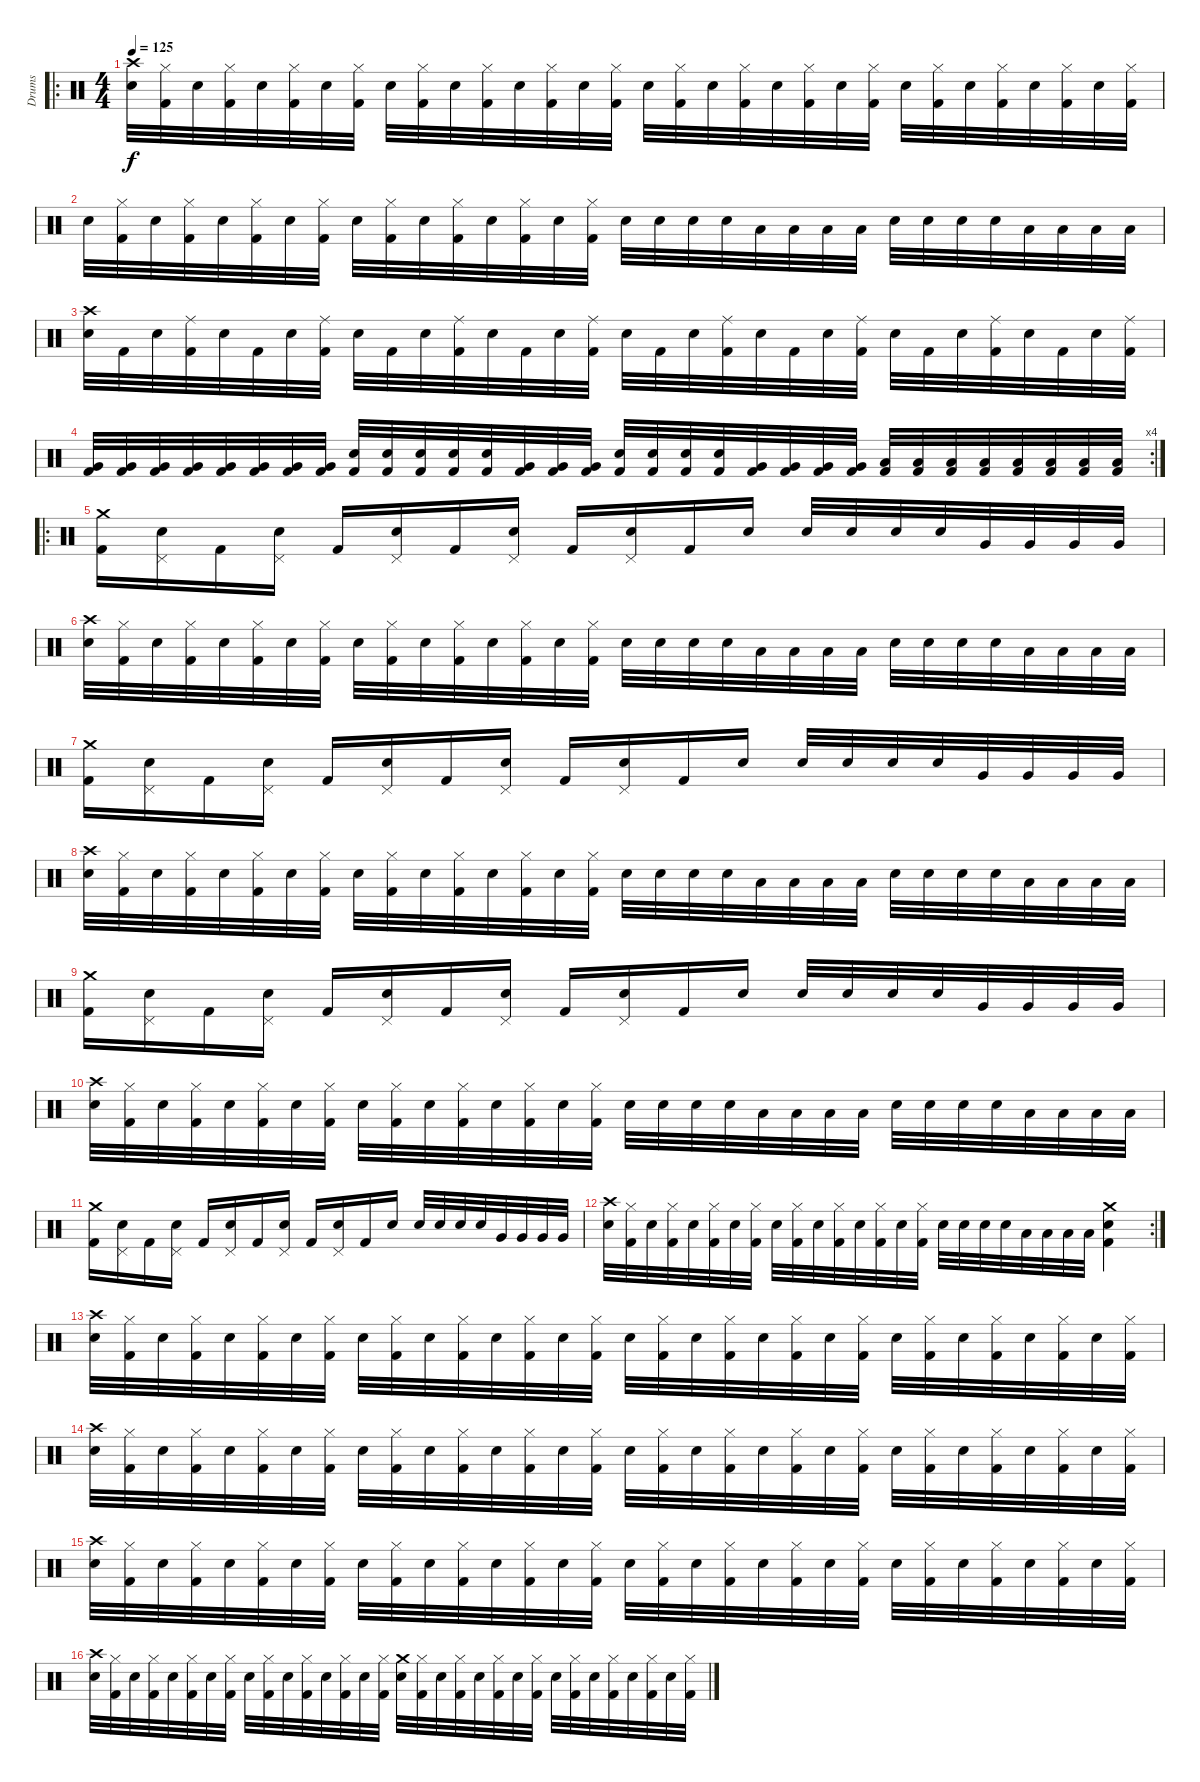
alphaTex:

\track ("Drums" "Drums") {instrument percussion}
\staff {score}
\articulation defaults
\ro
\ts (4 4)
\tempo 125
\clef neutral
\ks c
("Crash high (hit)" "Snare (hit) 2").32{dy f} ("Hi-Hat (closed)" "Kick (hit) 2").32 "Snare (hit) 2".32 ("Hi-Hat (closed)" "Kick (hit) 2").32 "Snare (hit) 2".32 ("Hi-Hat (closed)" "Kick (hit) 2").32 "Snare (hit) 2".32 ("Hi-Hat (closed)" "Kick (hit) 2").32 "Snare (hit) 2".32 ("Hi-Hat (closed)" "Kick (hit) 2").32 "Snare (hit) 2".32 ("Hi-Hat (closed)" "Kick (hit) 2").32 "Snare (hit) 2".32 ("Hi-Hat (closed)" "Kick (hit) 2").32 "Snare (hit) 2".32 ("Hi-Hat (closed)" "Kick (hit) 2").32 "Snare (hit) 2".32 ("Hi-Hat (closed)" "Kick (hit) 2").32 "Snare (hit) 2".32 ("Hi-Hat (closed)" "Kick (hit) 2").32 "Snare (hit) 2".32 ("Hi-Hat (closed)" "Kick (hit) 2").32 "Snare (hit) 2".32 ("Hi-Hat (closed)" "Kick (hit) 2").32 "Snare (hit) 2".32 ("Hi-Hat (closed)" "Kick (hit) 2").32 "Snare (hit) 2".32 ("Hi-Hat (closed)" "Kick (hit) 2").32 "Snare (hit) 2".32 ("Hi-Hat (closed)" "Kick (hit) 2").32 "Snare (hit) 2".32 ("Hi-Hat (closed)" "Kick (hit) 2").32 |
"Snare (hit) 2".32 ("Hi-Hat (closed)" "Kick (hit) 2").32 "Snare (hit) 2".32 ("Hi-Hat (closed)" "Kick (hit) 2").32 "Snare (hit) 2".32 ("Hi-Hat (closed)" "Kick (hit) 2").32 "Snare (hit) 2".32 ("Hi-Hat (closed)" "Kick (hit) 2").32 "Snare (hit) 2".32 ("Hi-Hat (closed)" "Kick (hit) 2").32 "Snare (hit) 2".32 ("Hi-Hat (closed)" "Kick (hit) 2").32 "Snare (hit) 2".32 ("Hi-Hat (closed)" "Kick (hit) 2").32 "Snare (hit) 2".32 ("Hi-Hat (closed)" "Kick (hit) 2").32 "Snare (hit) 2".32 "Snare (hit) 2".32 "Snare (hit) 2".32 "Snare (hit) 2".32 "Low Tom (hit)".32 "Low Tom (hit)".32 "Low Tom (hit)".32 "Low Tom (hit)".32 "Snare (hit) 2".32 "Snare (hit) 2".32 "Snare (hit) 2".32 "Snare (hit) 2".32 "Low Tom (hit)".32 "Low Tom (hit)".32 "Low Tom (hit)".32 "Low Tom (hit)".32 |
("Crash high (hit)" "Snare (hit) 2").32 "Kick (hit) 2".32 "Snare (hit) 2".32 ("Ride (middle)" "Kick (hit) 2").32 "Snare (hit) 2".32 "Kick (hit) 2".32 "Snare (hit) 2".32 ("Ride (middle)" "Kick (hit) 2").32 "Snare (hit) 2".32 "Kick (hit) 2".32 "Snare (hit) 2".32 ("Ride (middle)" "Kick (hit) 2").32 "Snare (hit) 2".32 "Kick (hit) 2".32 "Snare (hit) 2".32 ("Ride (middle)" "Kick (hit) 2").32 "Snare (hit) 2".32 "Kick (hit) 2".32 "Snare (hit) 2".32 ("Ride (middle)" "Kick (hit) 2").32 "Snare (hit) 2".32 "Kick (hit) 2".32 "Snare (hit) 2".32 ("Ride (middle)" "Kick (hit) 2").32 "Snare (hit) 2".32 "Kick (hit) 2".32 "Snare (hit) 2".32 ("Ride (middle)" "Kick (hit) 2").32 "Snare (hit) 2".32 "Kick (hit) 2".32 "Snare (hit) 2".32 ("Ride (middle)" "Kick (hit) 2").32 |
\rc 4
("Very Low Tom (hit)" "Kick (hit) 2").32 ("Very Low Tom (hit)" "Kick (hit) 2").32 ("Very Low Tom (hit)" "Kick (hit) 2").32 ("Very Low Tom (hit)" "Kick (hit) 2").32 ("Very Low Tom (hit)" "Kick (hit) 2").32 ("Very Low Tom (hit)" "Kick (hit) 2").32 ("Very Low Tom (hit)" "Kick (hit) 2").32 ("Very Low Tom (hit)" "Kick (hit) 2").32 ("Snare (hit) 2" "Kick (hit) 2").32 ("Snare (hit) 2" "Kick (hit) 2").32 ("Snare (hit) 2" "Kick (hit) 2").32 ("Snare (hit) 2" "Kick (hit) 2").32 ("Snare (hit) 2" "Kick (hit) 2").32 ("Very Low Tom (hit)" "Kick (hit) 2").32 ("Very Low Tom (hit)" "Kick (hit) 2").32 ("Very Low Tom (hit)" "Kick (hit) 2").32 ("Snare (hit) 2" "Kick (hit) 2").32 ("Snare (hit) 2" "Kick (hit) 2").32 ("Snare (hit) 2" "Kick (hit) 2").32 ("Snare (hit) 2" "Kick (hit) 2").32 ("Very Low Tom (hit)" "Kick (hit) 2").32 ("Very Low Tom (hit)" "Kick (hit) 2").32 ("Very Low Tom (hit)" "Kick (hit) 2").32 ("Very Low Tom (hit)" "Kick (hit) 2").32 ("Low Floor Tom (hit)" "Kick (hit) 2").32 ("Low Floor Tom (hit)" "Kick (hit) 2").32 ("Low Floor Tom (hit)" "Kick (hit) 2").32 ("Low Floor Tom (hit)" "Kick (hit) 2").32 ("Low Tom (hit)" "Kick (hit) 2").32 ("Low Tom (hit)" "Kick (hit) 2").32 ("Low Tom (hit)" "Kick (hit) 2").32 ("Low Tom (hit)" "Kick (hit) 2").32 |
\ro
("Crash medium (hit)" "Kick (hit) 2").16 ("Pedal Hi-Hat (hit)" "Snare (hit) 2").16 "Kick (hit) 2".16 ("Pedal Hi-Hat (hit)" "Snare (hit) 2").16 "Kick (hit) 2".16 ("Pedal Hi-Hat (hit)" "Snare (hit) 2").16 "Kick (hit) 2".16 ("Pedal Hi-Hat (hit)" "Snare (hit) 2").16 "Kick (hit) 2".16 ("Pedal Hi-Hat (hit)" "Snare (hit) 2").16 "Kick (hit) 2".16 "Snare (hit) 2".16 "Snare (hit) 2".32 "Snare (hit) 2".32 "Snare (hit) 2".32 "Snare (hit) 2".32 "Very Low Tom (hit)".32 "Very Low Tom (hit)".32 "Very Low Tom (hit)".32 "Very Low Tom (hit)".32 |
("Crash high (hit)" "Snare (hit) 2").32 ("Hi-Hat (closed)" "Kick (hit) 2").32 "Snare (hit) 2".32 ("Hi-Hat (closed)" "Kick (hit) 2").32 "Snare (hit) 2".32 ("Hi-Hat (closed)" "Kick (hit) 2").32 "Snare (hit) 2".32 ("Hi-Hat (closed)" "Kick (hit) 2").32 "Snare (hit) 2".32 ("Hi-Hat (closed)" "Kick (hit) 2").32 "Snare (hit) 2".32 ("Hi-Hat (closed)" "Kick (hit) 2").32 "Snare (hit) 2".32 ("Hi-Hat (closed)" "Kick (hit) 2").32 "Snare (hit) 2".32 ("Hi-Hat (closed)" "Kick (hit) 2").32 "Snare (hit) 2".32 "Snare (hit) 2".32 "Snare (hit) 2".32 "Snare (hit) 2".32 "Low Tom (hit)".32 "Low Tom (hit)".32 "Low Tom (hit)".32 "Low Tom (hit)".32 "Snare (hit) 2".32 "Snare (hit) 2".32 "Snare (hit) 2".32 "Snare (hit) 2".32 "Low Tom (hit)".32 "Low Tom (hit)".32 "Low Tom (hit)".32 "Low Tom (hit)".32 |
("Crash medium (hit)" "Kick (hit) 2").16 ("Pedal Hi-Hat (hit)" "Snare (hit) 2").16 "Kick (hit) 2".16 ("Pedal Hi-Hat (hit)" "Snare (hit) 2").16 "Kick (hit) 2".16 ("Pedal Hi-Hat (hit)" "Snare (hit) 2").16 "Kick (hit) 2".16 ("Pedal Hi-Hat (hit)" "Snare (hit) 2").16 "Kick (hit) 2".16 ("Pedal Hi-Hat (hit)" "Snare (hit) 2").16 "Kick (hit) 2".16 "Snare (hit) 2".16 "Snare (hit) 2".32 "Snare (hit) 2".32 "Snare (hit) 2".32 "Snare (hit) 2".32 "Very Low Tom (hit)".32 "Very Low Tom (hit)".32 "Very Low Tom (hit)".32 "Very Low Tom (hit)".32 |
("Crash high (hit)" "Snare (hit) 2").32 ("Hi-Hat (closed)" "Kick (hit) 2").32 "Snare (hit) 2".32 ("Hi-Hat (closed)" "Kick (hit) 2").32 "Snare (hit) 2".32 ("Hi-Hat (closed)" "Kick (hit) 2").32 "Snare (hit) 2".32 ("Hi-Hat (closed)" "Kick (hit) 2").32 "Snare (hit) 2".32 ("Hi-Hat (closed)" "Kick (hit) 2").32 "Snare (hit) 2".32 ("Hi-Hat (closed)" "Kick (hit) 2").32 "Snare (hit) 2".32 ("Hi-Hat (closed)" "Kick (hit) 2").32 "Snare (hit) 2".32 ("Hi-Hat (closed)" "Kick (hit) 2").32 "Snare (hit) 2".32 "Snare (hit) 2".32 "Snare (hit) 2".32 "Snare (hit) 2".32 "Low Tom (hit)".32 "Low Tom (hit)".32 "Low Tom (hit)".32 "Low Tom (hit)".32 "Snare (hit) 2".32 "Snare (hit) 2".32 "Snare (hit) 2".32 "Snare (hit) 2".32 "Low Tom (hit)".32 "Low Tom (hit)".32 "Low Tom (hit)".32 "Low Tom (hit)".32 |
("Crash medium (hit)" "Kick (hit) 2").16 ("Pedal Hi-Hat (hit)" "Snare (hit) 2").16 "Kick (hit) 2".16 ("Pedal Hi-Hat (hit)" "Snare (hit) 2").16 "Kick (hit) 2".16 ("Pedal Hi-Hat (hit)" "Snare (hit) 2").16 "Kick (hit) 2".16 ("Pedal Hi-Hat (hit)" "Snare (hit) 2").16 "Kick (hit) 2".16 ("Pedal Hi-Hat (hit)" "Snare (hit) 2").16 "Kick (hit) 2".16 "Snare (hit) 2".16 "Snare (hit) 2".32 "Snare (hit) 2".32 "Snare (hit) 2".32 "Snare (hit) 2".32 "Very Low Tom (hit)".32 "Very Low Tom (hit)".32 "Very Low Tom (hit)".32 "Very Low Tom (hit)".32 |
("Crash high (hit)" "Snare (hit) 2").32 ("Hi-Hat (closed)" "Kick (hit) 2").32 "Snare (hit) 2".32 ("Hi-Hat (closed)" "Kick (hit) 2").32 "Snare (hit) 2".32 ("Hi-Hat (closed)" "Kick (hit) 2").32 "Snare (hit) 2".32 ("Hi-Hat (closed)" "Kick (hit) 2").32 "Snare (hit) 2".32 ("Hi-Hat (closed)" "Kick (hit) 2").32 "Snare (hit) 2".32 ("Hi-Hat (closed)" "Kick (hit) 2").32 "Snare (hit) 2".32 ("Hi-Hat (closed)" "Kick (hit) 2").32 "Snare (hit) 2".32 ("Hi-Hat (closed)" "Kick (hit) 2").32 "Snare (hit) 2".32 "Snare (hit) 2".32 "Snare (hit) 2".32 "Snare (hit) 2".32 "Low Tom (hit)".32 "Low Tom (hit)".32 "Low Tom (hit)".32 "Low Tom (hit)".32 "Snare (hit) 2".32 "Snare (hit) 2".32 "Snare (hit) 2".32 "Snare (hit) 2".32 "Low Tom (hit)".32 "Low Tom (hit)".32 "Low Tom (hit)".32 "Low Tom (hit)".32 |
("Crash medium (hit)" "Kick (hit) 2").16 ("Pedal Hi-Hat (hit)" "Snare (hit) 2").16 "Kick (hit) 2".16 ("Pedal Hi-Hat (hit)" "Snare (hit) 2").16 "Kick (hit) 2".16 ("Pedal Hi-Hat (hit)" "Snare (hit) 2").16 "Kick (hit) 2".16 ("Pedal Hi-Hat (hit)" "Snare (hit) 2").16 "Kick (hit) 2".16 ("Pedal Hi-Hat (hit)" "Snare (hit) 2").16 "Kick (hit) 2".16 "Snare (hit) 2".16 "Snare (hit) 2".32 "Snare (hit) 2".32 "Snare (hit) 2".32 "Snare (hit) 2".32 "Very Low Tom (hit)".32 "Very Low Tom (hit)".32 "Very Low Tom (hit)".32 "Very Low Tom (hit)".32 |
\rc 2
("Crash high (hit)" "Snare (hit) 2").32 ("Hi-Hat (closed)" "Kick (hit) 2").32 "Snare (hit) 2".32 ("Hi-Hat (closed)" "Kick (hit) 2").32 "Snare (hit) 2".32 ("Hi-Hat (closed)" "Kick (hit) 2").32 "Snare (hit) 2".32 ("Hi-Hat (closed)" "Kick (hit) 2").32 "Snare (hit) 2".32 ("Hi-Hat (closed)" "Kick (hit) 2").32 "Snare (hit) 2".32 ("Hi-Hat (closed)" "Kick (hit) 2").32 "Snare (hit) 2".32 ("Hi-Hat (closed)" "Kick (hit) 2").32 "Snare (hit) 2".32 ("Hi-Hat (closed)" "Kick (hit) 2").32 "Snare (hit) 2".32 "Snare (hit) 2".32 "Snare (hit) 2".32 "Snare (hit) 2".32 "Low Tom (hit)".32 "Low Tom (hit)".32 "Low Tom (hit)".32 "Low Tom (hit)".32 ("Crash medium (hit)" "Snare (hit) 2" "Kick (hit) 2").4 |
("Crash high (hit)" "Snare (hit) 2").32 ("Hi-Hat (closed)" "Kick (hit) 2").32 "Snare (hit) 2".32 ("Hi-Hat (closed)" "Kick (hit) 2").32 "Snare (hit) 2".32 ("Hi-Hat (closed)" "Kick (hit) 2").32 "Snare (hit) 2".32 ("Hi-Hat (closed)" "Kick (hit) 2").32 "Snare (hit) 2".32 ("Hi-Hat (closed)" "Kick (hit) 2").32 "Snare (hit) 2".32 ("Hi-Hat (closed)" "Kick (hit) 2").32 "Snare (hit) 2".32 ("Hi-Hat (closed)" "Kick (hit) 2").32 "Snare (hit) 2".32 ("Hi-Hat (closed)" "Kick (hit) 2").32 "Snare (hit) 2".32 ("Hi-Hat (closed)" "Kick (hit) 2").32 "Snare (hit) 2".32 ("Hi-Hat (closed)" "Kick (hit) 2").32 "Snare (hit) 2".32 ("Hi-Hat (closed)" "Kick (hit) 2").32 "Snare (hit) 2".32 ("Hi-Hat (closed)" "Kick (hit) 2").32 "Snare (hit) 2".32 ("Hi-Hat (closed)" "Kick (hit) 2").32 "Snare (hit) 2".32 ("Hi-Hat (closed)" "Kick (hit) 2").32 "Snare (hit) 2".32 ("Hi-Hat (closed)" "Kick (hit) 2").32 "Snare (hit) 2".32 ("Hi-Hat (closed)" "Kick (hit) 2").32 |
("Crash high (hit)" "Snare (hit) 2").32 ("Hi-Hat (closed)" "Kick (hit) 2").32 "Snare (hit) 2".32 ("Hi-Hat (closed)" "Kick (hit) 2").32 "Snare (hit) 2".32 ("Hi-Hat (closed)" "Kick (hit) 2").32 "Snare (hit) 2".32 ("Hi-Hat (closed)" "Kick (hit) 2").32 "Snare (hit) 2".32 ("Hi-Hat (closed)" "Kick (hit) 2").32 "Snare (hit) 2".32 ("Hi-Hat (closed)" "Kick (hit) 2").32 "Snare (hit) 2".32 ("Hi-Hat (closed)" "Kick (hit) 2").32 "Snare (hit) 2".32 ("Hi-Hat (closed)" "Kick (hit) 2").32 "Snare (hit) 2".32 ("Hi-Hat (closed)" "Kick (hit) 2").32 "Snare (hit) 2".32 ("Hi-Hat (closed)" "Kick (hit) 2").32 "Snare (hit) 2".32 ("Hi-Hat (closed)" "Kick (hit) 2").32 "Snare (hit) 2".32 ("Hi-Hat (closed)" "Kick (hit) 2").32 "Snare (hit) 2".32 ("Hi-Hat (closed)" "Kick (hit) 2").32 "Snare (hit) 2".32 ("Hi-Hat (closed)" "Kick (hit) 2").32 "Snare (hit) 2".32 ("Hi-Hat (closed)" "Kick (hit) 2").32 "Snare (hit) 2".32 ("Hi-Hat (closed)" "Kick (hit) 2").32 |
("Crash high (hit)" "Snare (hit) 2").32 ("Hi-Hat (closed)" "Kick (hit) 2").32 "Snare (hit) 2".32 ("Hi-Hat (closed)" "Kick (hit) 2").32 "Snare (hit) 2".32 ("Hi-Hat (closed)" "Kick (hit) 2").32 "Snare (hit) 2".32 ("Hi-Hat (closed)" "Kick (hit) 2").32 "Snare (hit) 2".32 ("Hi-Hat (closed)" "Kick (hit) 2").32 "Snare (hit) 2".32 ("Hi-Hat (closed)" "Kick (hit) 2").32 "Snare (hit) 2".32 ("Hi-Hat (closed)" "Kick (hit) 2").32 "Snare (hit) 2".32 ("Hi-Hat (closed)" "Kick (hit) 2").32 "Snare (hit) 2".32 ("Hi-Hat (closed)" "Kick (hit) 2").32 "Snare (hit) 2".32 ("Hi-Hat (closed)" "Kick (hit) 2").32 "Snare (hit) 2".32 ("Hi-Hat (closed)" "Kick (hit) 2").32 "Snare (hit) 2".32 ("Hi-Hat (closed)" "Kick (hit) 2").32 "Snare (hit) 2".32 ("Hi-Hat (closed)" "Kick (hit) 2").32 "Snare (hit) 2".32 ("Hi-Hat (closed)" "Kick (hit) 2").32 "Snare (hit) 2".32 ("Hi-Hat (closed)" "Kick (hit) 2").32 "Snare (hit) 2".32 ("Hi-Hat (closed)" "Kick (hit) 2").32 |
("Crash high (hit)" "Snare (hit) 2").32 ("Hi-Hat (closed)" "Kick (hit) 2").32 "Snare (hit) 2".32 ("Hi-Hat (closed)" "Kick (hit) 2").32 "Snare (hit) 2".32 ("Hi-Hat (closed)" "Kick (hit) 2").32 "Snare (hit) 2".32 ("Hi-Hat (closed)" "Kick (hit) 2").32 "Snare (hit) 2".32 ("Hi-Hat (closed)" "Kick (hit) 2").32 "Snare (hit) 2".32 ("Hi-Hat (closed)" "Kick (hit) 2").32 "Snare (hit) 2".32 ("Hi-Hat (closed)" "Kick (hit) 2").32 "Snare (hit) 2".32 ("Hi-Hat (closed)" "Kick (hit) 2").32 ("Crash medium (hit)" "Snare (hit) 2").32 ("Hi-Hat (closed)" "Kick (hit) 2").32 "Snare (hit) 2".32 ("Hi-Hat (closed)" "Kick (hit) 2").32 "Snare (hit) 2".32 ("Hi-Hat (closed)" "Kick (hit) 2").32 "Snare (hit) 2".32 ("Hi-Hat (closed)" "Kick (hit) 2").32 "Snare (hit) 2".32 ("Hi-Hat (closed)" "Kick (hit) 2").32 "Snare (hit) 2".32 ("Hi-Hat (closed)" "Kick (hit) 2").32 "Snare (hit) 2".32 ("Hi-Hat (closed)" "Kick (hit) 2").32 "Snare (hit) 2".32 ("Hi-Hat (closed)" "Kick (hit) 2").32
